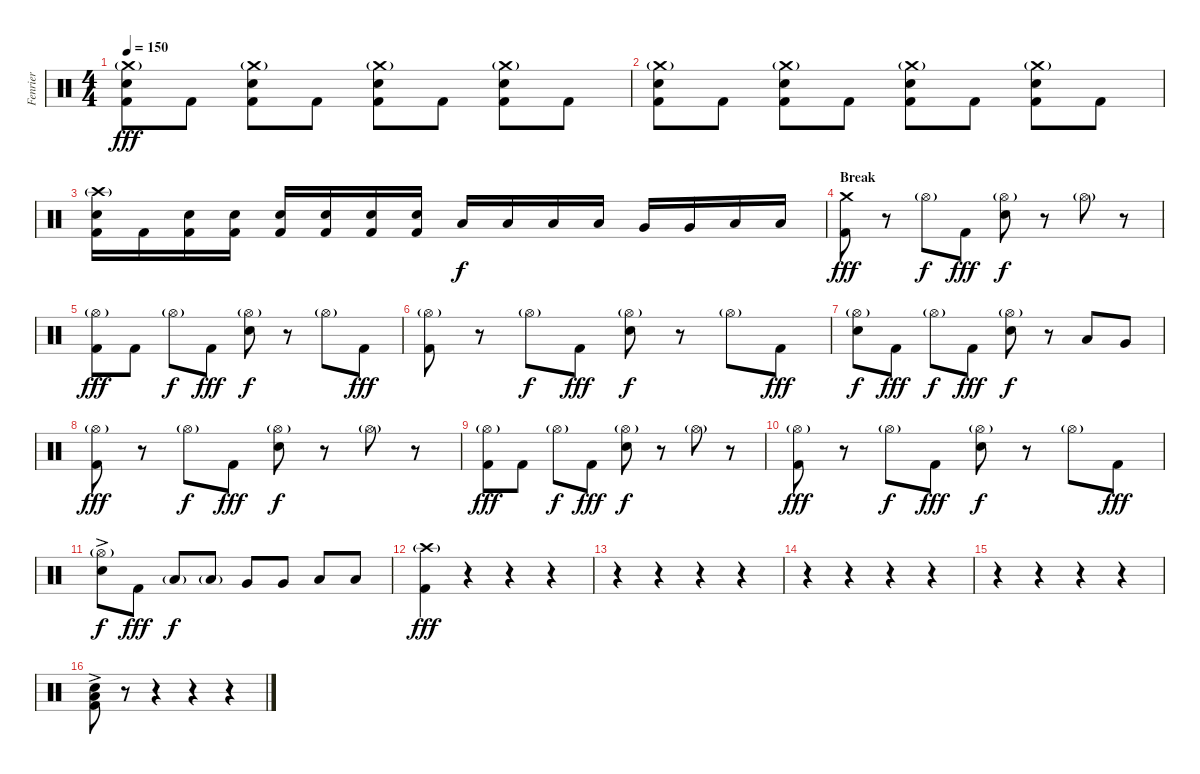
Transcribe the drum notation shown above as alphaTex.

\track ("Fenrier" "Fenrier") {instrument percussion}
\staff {score}
\articulation defaults
\ts (4 4)
\tempo 150
\clef neutral
\ks c
("Crash medium (hit)"{g} "Electric Snare (hit)" "Kick (hit) 2").8{dy fff} "Kick (hit) 2".8 ("Crash medium (hit)"{g} "Electric Snare (hit)" "Kick (hit) 2").8 "Kick (hit) 2".8 ("Crash medium (hit)"{g} "Electric Snare (hit)" "Kick (hit) 2").8 "Kick (hit) 2".8 ("Crash medium (hit)"{g} "Electric Snare (hit)" "Kick (hit) 2").8 "Kick (hit) 2".8 |
("Crash medium (hit)"{g} "Electric Snare (hit)" "Kick (hit) 2").8 "Kick (hit) 2".8 ("Crash medium (hit)"{g} "Electric Snare (hit)" "Kick (hit) 2").8 "Kick (hit) 2".8 ("Crash medium (hit)"{g} "Electric Snare (hit)" "Kick (hit) 2").8 "Kick (hit) 2".8 ("Crash medium (hit)"{g} "Electric Snare (hit)" "Kick (hit) 2").8 "Kick (hit) 2".8 |
("Crash high (hit)"{g} "Electric Snare (hit)" "Kick (hit) 2").16 "Kick (hit) 2".16 ("Electric Snare (hit)" "Kick (hit) 2").16 ("Electric Snare (hit)" "Kick (hit) 2").16 ("Electric Snare (hit)" "Kick (hit) 2").16 ("Electric Snare (hit)" "Kick (hit) 2").16 ("Electric Snare (hit)" "Kick (hit) 2").16 ("Electric Snare (hit)" "Kick (hit) 2").16 "Low Tom (hit)".16{dy f} "Low Tom (hit)".16 "Low Tom (hit)".16 "Low Tom (hit)".16 "Very Low Tom (hit)".16 "Very Low Tom (hit)".16 "Low Floor Tom (hit)".16 "Low Floor Tom (hit)".16 |
\section ("" "Break")
("Crash medium (hit)" "Kick (hit) 2").8{dy fff} r.8 "Hi-Hat (open)"{g}.8{dy f} "Kick (hit) 2".8{dy fff} ("Hi-Hat (open)"{g} "Electric Snare (hit)").8{dy f} r.8 "Hi-Hat (open)"{g}.8 r.8 |
("Hi-Hat (open)"{g} "Kick (hit) 2").8{dy fff} "Kick (hit) 2".8 "Hi-Hat (open)"{g}.8{dy f} "Kick (hit) 2".8{dy fff} ("Hi-Hat (open)"{g} "Electric Snare (hit)").8{dy f} r.8 "Hi-Hat (open)"{g}.8 "Kick (hit) 2".8{dy fff} |
("Hi-Hat (open)"{g} "Kick (hit) 2").8 r.8 "Hi-Hat (open)"{g}.8{dy f} "Kick (hit) 2".8{dy fff} ("Hi-Hat (open)"{g} "Electric Snare (hit)").8{dy f} r.8 "Hi-Hat (open)"{g}.8 "Kick (hit) 2".8{dy fff} |
("Hi-Hat (open)"{g} "Electric Snare (hit)").8{dy f} "Kick (hit) 2".8{dy fff} "Hi-Hat (open)"{g}.8{dy f} "Kick (hit) 2".8{dy fff} ("Hi-Hat (open)"{g} "Electric Snare (hit)").8{dy f} r.8 "Low Tom (hit)".8 "Very Low Tom (hit)".8 |
("Hi-Hat (open)"{g} "Kick (hit) 2").8{dy fff} r.8 "Hi-Hat (open)"{g}.8{dy f} "Kick (hit) 2".8{dy fff} ("Hi-Hat (open)"{g} "Electric Snare (hit)").8{dy f} r.8 "Hi-Hat (open)"{g}.8 r.8 |
("Hi-Hat (open)"{g} "Kick (hit) 2").8{dy fff} "Kick (hit) 2".8 "Hi-Hat (open)"{g}.8{dy f} "Kick (hit) 2".8{dy fff} ("Hi-Hat (open)"{g} "Electric Snare (hit)").8{dy f} r.8 "Hi-Hat (open)"{g}.8 r.8 |
("Hi-Hat (open)"{g} "Kick (hit) 2").8{dy fff} r.8 "Hi-Hat (open)"{g}.8{dy f} "Kick (hit) 2".8{dy fff} ("Hi-Hat (open)"{g} "Electric Snare (hit)").8{dy f} r.8 "Hi-Hat (open)"{g}.8 "Kick (hit) 2".8{dy fff} |
("Hi-Hat (open)"{g} "Electric Snare (hit)"{ac}).8{dy f} "Kick (hit) 2".8{dy fff} "Low Tom (hit)"{g}.8{dy f} "Low Tom (hit)"{g}.8 "Very Low Tom (hit)".8 "Very Low Tom (hit)".8 "Low Floor Tom (hit)".8 "Low Floor Tom (hit)".8 |
("Crash high (hit)"{g} "Kick (hit) 2").4{dy fff} r.4 r.4 r.4 |
r.4 r.4 r.4 r.4 |
r.4 r.4 r.4 r.4 |
r.4 r.4 r.4 r.4 |
("Electric Snare (hit)"{ac} "Low Floor Tom (hit)"{ac} "Kick (hit) 2"{ac}).8 r.8 r.4 r.4 r.4
